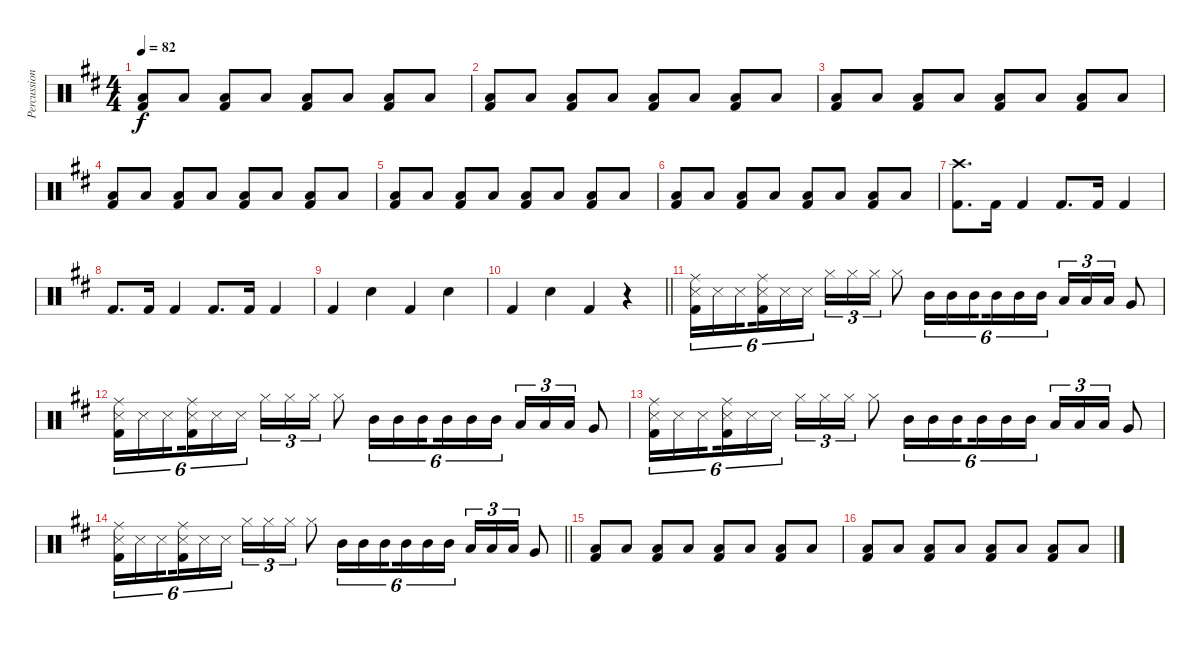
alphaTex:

\track ("Percussion" "Percussion") {instrument percussion}
\staff {score}
\articulation defaults
\ts (4 4)
\tempo 82
\clef neutral
\ks d
("Low Floor Tom (hit)" "Kick (hit) 2").8{dy f} "Low Floor Tom (hit)".8 ("Low Floor Tom (hit)" "Kick (hit) 2").8 "Low Floor Tom (hit)".8 ("Low Floor Tom (hit)" "Kick (hit) 2").8 "Low Floor Tom (hit)".8 ("Low Floor Tom (hit)" "Kick (hit) 2").8 "Low Floor Tom (hit)".8 |
("Low Floor Tom (hit)" "Kick (hit) 2").8 "Low Floor Tom (hit)".8 ("Low Floor Tom (hit)" "Kick (hit) 2").8 "Low Floor Tom (hit)".8 ("Low Floor Tom (hit)" "Kick (hit) 2").8 "Low Floor Tom (hit)".8 ("Low Floor Tom (hit)" "Kick (hit) 2").8 "Low Floor Tom (hit)".8 |
("Low Floor Tom (hit)" "Kick (hit) 2").8 "Low Floor Tom (hit)".8 ("Low Floor Tom (hit)" "Kick (hit) 2").8 "Low Floor Tom (hit)".8 ("Low Floor Tom (hit)" "Kick (hit) 2").8 "Low Floor Tom (hit)".8 ("Low Floor Tom (hit)" "Kick (hit) 2").8 "Low Floor Tom (hit)".8 |
("Low Floor Tom (hit)" "Kick (hit) 2").8 "Low Floor Tom (hit)".8 ("Low Floor Tom (hit)" "Kick (hit) 2").8 "Low Floor Tom (hit)".8 ("Low Floor Tom (hit)" "Kick (hit) 2").8 "Low Floor Tom (hit)".8 ("Low Floor Tom (hit)" "Kick (hit) 2").8 "Low Floor Tom (hit)".8 |
("Low Floor Tom (hit)" "Kick (hit) 2").8 "Low Floor Tom (hit)".8 ("Low Floor Tom (hit)" "Kick (hit) 2").8 "Low Floor Tom (hit)".8 ("Low Floor Tom (hit)" "Kick (hit) 2").8 "Low Floor Tom (hit)".8 ("Low Floor Tom (hit)" "Kick (hit) 2").8 "Low Floor Tom (hit)".8 |
("Low Floor Tom (hit)" "Kick (hit) 2").8 "Low Floor Tom (hit)".8 ("Low Floor Tom (hit)" "Kick (hit) 2").8 "Low Floor Tom (hit)".8 ("Low Floor Tom (hit)" "Kick (hit) 2").8 "Low Floor Tom (hit)".8 ("Low Floor Tom (hit)" "Kick (hit) 2").8 "Low Floor Tom (hit)".8 |
("Crash high (hit)" "Kick (hit) 2").8{d} "Kick (hit) 2".16 "Kick (hit) 2".4 "Kick (hit) 2".8{d} "Kick (hit) 2".16 "Kick (hit) 2".4 |
"Kick (hit) 2".8{d} "Kick (hit) 2".16 "Kick (hit) 2".4 "Kick (hit) 2".8{d} "Kick (hit) 2".16 "Kick (hit) 2".4 |
"Kick (hit) 2".4 "Snare (hit) 2".4 "Kick (hit) 2".4 "Snare (hit) 2".4 |
\barLineRight lightlight "Kick (hit) 2".4 "Snare (hit) 2".4 "Kick (hit) 2".4
r.4 |
("Snare (side stick) 3" "Kick (hit) 2" "Ride (middle)").16{tu (6 4)} "Snare (side stick) 3".16{tu (6 4)} "Snare (side stick) 3".16{tu (6 4) beam splitsecondary} ("Snare (side stick) 3" "Kick (hit) 2" "Ride (middle)").16{tu (6 4)} "Snare (side stick) 3".16{tu (6 4)} "Snare (side stick) 3".16{tu (6 4)} "Hi-Hat (closed)".16{tu (3 2)} "Hi-Hat (closed)".16{tu (3 2)} "Hi-Hat (closed)".16{tu (3 2)} "Hi-Hat (closed)".8 "Mid Tom (hit)".16{tu (6 4)} "Mid Tom (hit)".16{tu (6 4)} "Mid Tom (hit)".16{tu (6 4) beam splitsecondary} "Mid Tom (hit)".16{tu (6 4)} "Mid Tom (hit)".16{tu (6 4)} "Mid Tom (hit)".16{tu (6 4)} "Low Tom (hit)".16{tu (3 2)} "Low Tom (hit)".16{tu (3 2)} "Low Tom (hit)".16{tu (3 2)} "Very Low Tom (hit)".8 |
("Snare (side stick) 3" "Kick (hit) 2" "Ride (middle)").16{tu (6 4)} "Snare (side stick) 3".16{tu (6 4)} "Snare (side stick) 3".16{tu (6 4) beam splitsecondary} ("Snare (side stick) 3" "Kick (hit) 2" "Ride (middle)").16{tu (6 4)} "Snare (side stick) 3".16{tu (6 4)} "Snare (side stick) 3".16{tu (6 4)} "Hi-Hat (closed)".16{tu (3 2)} "Hi-Hat (closed)".16{tu (3 2)} "Hi-Hat (closed)".16{tu (3 2)} "Hi-Hat (closed)".8 "Mid Tom (hit)".16{tu (6 4)} "Mid Tom (hit)".16{tu (6 4)} "Mid Tom (hit)".16{tu (6 4) beam splitsecondary} "Mid Tom (hit)".16{tu (6 4)} "Mid Tom (hit)".16{tu (6 4)} "Mid Tom (hit)".16{tu (6 4)} "Low Tom (hit)".16{tu (3 2)} "Low Tom (hit)".16{tu (3 2)} "Low Tom (hit)".16{tu (3 2)} "Very Low Tom (hit)".8 |
("Snare (side stick) 3" "Kick (hit) 2" "Ride (middle)").16{tu (6 4)} "Snare (side stick) 3".16{tu (6 4)} "Snare (side stick) 3".16{tu (6 4) beam splitsecondary} ("Snare (side stick) 3" "Kick (hit) 2" "Ride (middle)").16{tu (6 4)} "Snare (side stick) 3".16{tu (6 4)} "Snare (side stick) 3".16{tu (6 4)} "Hi-Hat (closed)".16{tu (3 2)} "Hi-Hat (closed)".16{tu (3 2)} "Hi-Hat (closed)".16{tu (3 2)} "Hi-Hat (closed)".8 "Mid Tom (hit)".16{tu (6 4)} "Mid Tom (hit)".16{tu (6 4)} "Mid Tom (hit)".16{tu (6 4) beam splitsecondary} "Mid Tom (hit)".16{tu (6 4)} "Mid Tom (hit)".16{tu (6 4)} "Mid Tom (hit)".16{tu (6 4)} "Low Tom (hit)".16{tu (3 2)} "Low Tom (hit)".16{tu (3 2)} "Low Tom (hit)".16{tu (3 2)} "Very Low Tom (hit)".8 |
\barLineRight lightlight
("Snare (side stick) 3" "Kick (hit) 2" "Ride (middle)").16{tu (6 4)} "Snare (side stick) 3".16{tu (6 4)} "Snare (side stick) 3".16{tu (6 4) beam splitsecondary} ("Snare (side stick) 3" "Kick (hit) 2" "Ride (middle)").16{tu (6 4)} "Snare (side stick) 3".16{tu (6 4)} "Snare (side stick) 3".16{tu (6 4)} "Hi-Hat (closed)".16{tu (3 2)} "Hi-Hat (closed)".16{tu (3 2)} "Hi-Hat (closed)".16{tu (3 2)} "Hi-Hat (closed)".8 "Mid Tom (hit)".16{tu (6 4)} "Mid Tom (hit)".16{tu (6 4)} "Mid Tom (hit)".16{tu (6 4) beam splitsecondary} "Mid Tom (hit)".16{tu (6 4)} "Mid Tom (hit)".16{tu (6 4)} "Mid Tom (hit)".16{tu (6 4)} "Low Tom (hit)".16{tu (3 2)} "Low Tom (hit)".16{tu (3 2)} "Low Tom (hit)".16{tu (3 2)} "Very Low Tom (hit)".8 |
("Low Floor Tom (hit)" "Kick (hit) 2").8 "Low Floor Tom (hit)".8 ("Low Floor Tom (hit)" "Kick (hit) 2").8 "Low Floor Tom (hit)".8 ("Low Floor Tom (hit)" "Kick (hit) 2").8 "Low Floor Tom (hit)".8 ("Low Floor Tom (hit)" "Kick (hit) 2").8 "Low Floor Tom (hit)".8 |
("Low Floor Tom (hit)" "Kick (hit) 2").8 "Low Floor Tom (hit)".8 ("Low Floor Tom (hit)" "Kick (hit) 2").8 "Low Floor Tom (hit)".8 ("Low Floor Tom (hit)" "Kick (hit) 2").8 "Low Floor Tom (hit)".8 ("Low Floor Tom (hit)" "Kick (hit) 2").8 "Low Floor Tom (hit)".8
